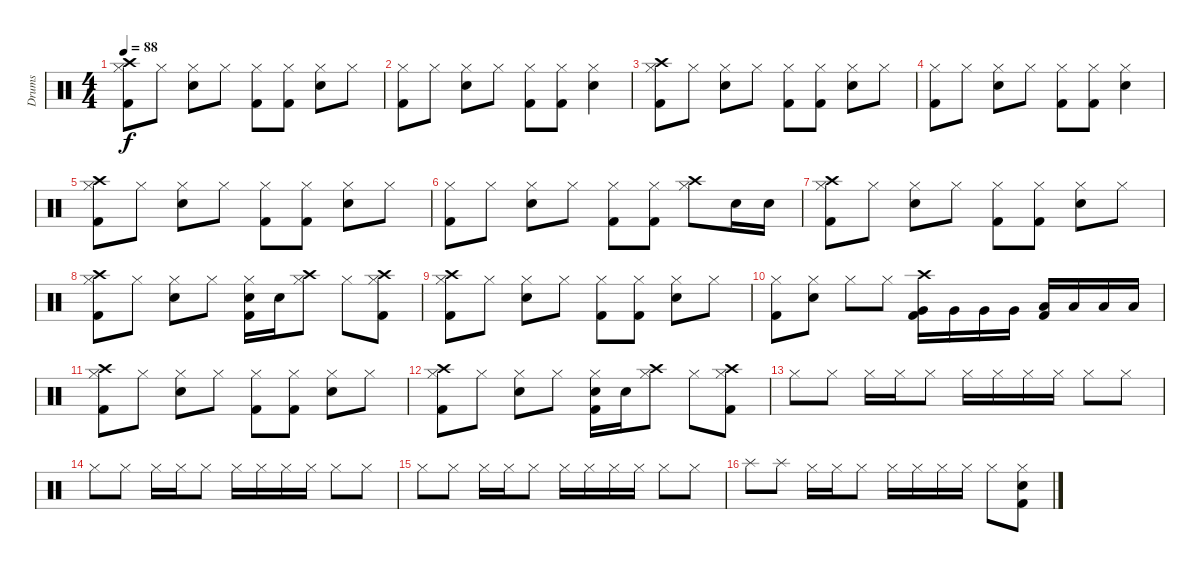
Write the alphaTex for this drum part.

\track ("Drums" "Drums") {instrument percussion}
\staff {score}
\articulation defaults
\ts (4 4)
\tempo 88
\clef neutral
\ks c
("Crash high (hit)" "Hi-Hat (closed)" "Kick (hit) 2").8{dy f} "Hi-Hat (closed)".8 ("Hi-Hat (closed)" "Electric Snare (hit)").8 "Hi-Hat (closed)".8 ("Hi-Hat (closed)" "Kick (hit) 2").8 ("Hi-Hat (closed)" "Kick (hit) 2").8 ("Hi-Hat (closed)" "Electric Snare (hit)").8 "Hi-Hat (closed)".8 |
("Hi-Hat (closed)" "Kick (hit) 2").8 "Hi-Hat (closed)".8 ("Hi-Hat (closed)" "Electric Snare (hit)").8 "Hi-Hat (closed)".8 ("Hi-Hat (closed)" "Kick (hit) 2").8 ("Hi-Hat (closed)" "Kick (hit) 2").8 ("Hi-Hat (closed)" "Electric Snare (hit)").4 |
("Crash high (hit)" "Hi-Hat (closed)" "Kick (hit) 2").8 "Hi-Hat (closed)".8 ("Hi-Hat (closed)" "Electric Snare (hit)").8 "Hi-Hat (closed)".8 ("Hi-Hat (closed)" "Kick (hit) 2").8 ("Hi-Hat (closed)" "Kick (hit) 2").8 ("Hi-Hat (closed)" "Electric Snare (hit)").8 "Hi-Hat (closed)".8 |
("Hi-Hat (closed)" "Kick (hit) 2").8 "Hi-Hat (closed)".8 ("Hi-Hat (closed)" "Electric Snare (hit)").8 "Hi-Hat (closed)".8 ("Hi-Hat (closed)" "Kick (hit) 2").8 ("Hi-Hat (closed)" "Kick (hit) 2").8 ("Hi-Hat (closed)" "Electric Snare (hit)").4 |
("Crash high (hit)" "Hi-Hat (closed)" "Kick (hit) 2").8 "Hi-Hat (closed)".8 ("Hi-Hat (closed)" "Electric Snare (hit)").8 "Hi-Hat (closed)".8 ("Hi-Hat (closed)" "Kick (hit) 2").8 ("Hi-Hat (closed)" "Kick (hit) 2").8 ("Hi-Hat (closed)" "Electric Snare (hit)").8 "Hi-Hat (closed)".8 |
("Hi-Hat (closed)" "Kick (hit) 2").8 "Hi-Hat (closed)".8 ("Hi-Hat (closed)" "Electric Snare (hit)").8 "Hi-Hat (closed)".8 ("Hi-Hat (closed)" "Kick (hit) 2").8 ("Hi-Hat (closed)" "Kick (hit) 2").8 ("Crash high (hit)" "Hi-Hat (closed)").8 "Electric Snare (hit)".16 "Electric Snare (hit)".16 |
("Crash high (hit)" "Hi-Hat (closed)" "Kick (hit) 2").8 "Hi-Hat (closed)".8 ("Hi-Hat (closed)" "Electric Snare (hit)").8 "Hi-Hat (closed)".8 ("Hi-Hat (closed)" "Kick (hit) 2").8 ("Hi-Hat (closed)" "Kick (hit) 2").8 ("Hi-Hat (closed)" "Electric Snare (hit)").8 "Hi-Hat (closed)".8 |
("Crash high (hit)" "Hi-Hat (closed)" "Kick (hit) 2").8 "Hi-Hat (closed)".8 ("Hi-Hat (closed)" "Electric Snare (hit)").8 "Hi-Hat (closed)".8 ("Hi-Hat (closed)" "Electric Snare (hit)" "Kick (hit) 2").16 "Electric Snare (hit)".16 ("Crash high (hit)" "Hi-Hat (closed)").8 "Hi-Hat (closed)".8 ("Crash high (hit)" "Hi-Hat (closed)" "Kick (hit) 2").8 |
("Crash high (hit)" "Hi-Hat (closed)" "Kick (hit) 2").8 "Hi-Hat (closed)".8 ("Hi-Hat (closed)" "Electric Snare (hit)").8 "Hi-Hat (closed)".8 ("Hi-Hat (closed)" "Kick (hit) 2").8 ("Hi-Hat (closed)" "Kick (hit) 2").8 ("Hi-Hat (closed)" "Electric Snare (hit)").8 "Hi-Hat (closed)".8 |
("Hi-Hat (closed)" "Kick (hit) 2").8 ("Hi-Hat (closed)" "Electric Snare (hit)").8 "Hi-Hat (closed)".8 "Hi-Hat (closed)".8 ("Crash high (hit)" "Very Low Tom (hit)" "Kick (hit) 2").16 "Very Low Tom (hit)".16 "Very Low Tom (hit)".16 "Very Low Tom (hit)".16 ("Low Tom (hit)" "Kick (hit) 2").16 "Low Tom (hit)".16 "Low Tom (hit)".16 "Low Tom (hit)".16 |
("Crash high (hit)" "Hi-Hat (closed)" "Kick (hit) 2").8 "Hi-Hat (closed)".8 ("Hi-Hat (closed)" "Electric Snare (hit)").8 "Hi-Hat (closed)".8 ("Hi-Hat (closed)" "Kick (hit) 2").8 ("Hi-Hat (closed)" "Kick (hit) 2").8 ("Hi-Hat (closed)" "Electric Snare (hit)").8 "Hi-Hat (closed)".8 |
("Crash high (hit)" "Hi-Hat (closed)" "Kick (hit) 2").8 "Hi-Hat (closed)".8 ("Hi-Hat (closed)" "Electric Snare (hit)").8 "Hi-Hat (closed)".8 ("Hi-Hat (closed)" "Electric Snare (hit)" "Kick (hit) 2").16 "Electric Snare (hit)".16 ("Crash high (hit)" "Hi-Hat (closed)").8 "Hi-Hat (closed)".8 ("Crash high (hit)" "Hi-Hat (closed)" "Kick (hit) 2").8 |
"Hi-Hat (closed)".8 "Hi-Hat (closed)".8 "Hi-Hat (closed)".16 "Hi-Hat (closed)".16 "Hi-Hat (closed)".8 "Hi-Hat (closed)".16 "Hi-Hat (closed)".16 "Hi-Hat (closed)".16 "Hi-Hat (closed)".16 "Hi-Hat (closed)".8 "Hi-Hat (closed)".8 |
"Hi-Hat (closed)".8 "Hi-Hat (closed)".8 "Hi-Hat (closed)".16 "Hi-Hat (closed)".16 "Hi-Hat (closed)".8 "Hi-Hat (closed)".16 "Hi-Hat (closed)".16 "Hi-Hat (closed)".16 "Hi-Hat (closed)".16 "Hi-Hat (closed)".8 "Hi-Hat (closed)".8 |
"Hi-Hat (closed)".8 "Hi-Hat (closed)".8 "Hi-Hat (closed)".16 "Hi-Hat (closed)".16 "Hi-Hat (closed)".8 "Hi-Hat (closed)".16 "Hi-Hat (closed)".16 "Hi-Hat (closed)".16 "Hi-Hat (closed)".16 "Hi-Hat (closed)".8 "Hi-Hat (closed)".8 |
"Splash (hit)".8 "Splash (hit)".8 "Hi-Hat (closed)".16 "Hi-Hat (closed)".16 "Hi-Hat (closed)".8 "Hi-Hat (closed)".16 "Hi-Hat (closed)".16 "Hi-Hat (closed)".16 "Hi-Hat (closed)".16 "Hi-Hat (closed)".8 ("Hi-Hat (closed)" "Electric Snare (hit)" "Kick (hit) 2").8
